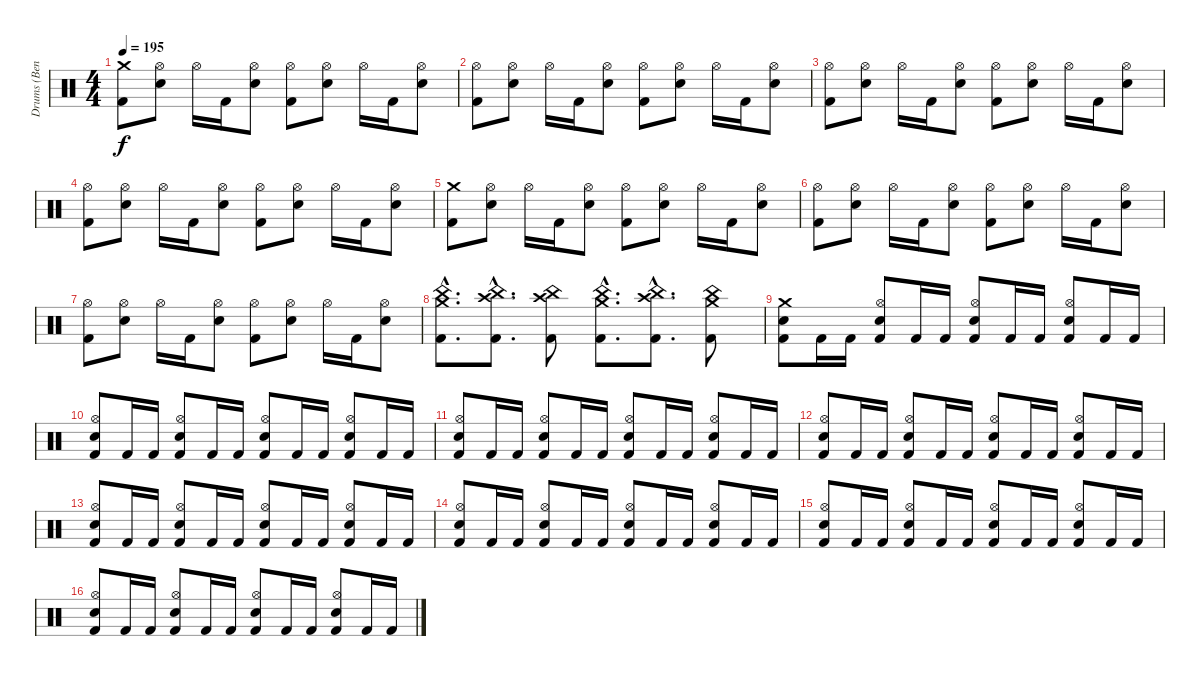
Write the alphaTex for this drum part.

\track ("Drums (Ben)" "Drums (Ben") {instrument percussion}
\staff {score}
\articulation defaults
\ts (4 4)
\tempo 195
\clef neutral
\ks c
("Crash medium (hit)" "Kick (hit) 2").8{dy f} ("Hi-Hat (open)" "Snare (hit) 2").8 "Hi-Hat (open)".16 "Kick (hit) 2".16 ("Hi-Hat (open)" "Snare (hit) 2").8 ("Hi-Hat (open)" "Kick (hit) 2").8 ("Hi-Hat (open)" "Snare (hit) 2").8 "Hi-Hat (open)".16 "Kick (hit) 2".16 ("Hi-Hat (open)" "Snare (hit) 2").8 |
("Hi-Hat (open)" "Kick (hit) 2").8 ("Hi-Hat (open)" "Snare (hit) 2").8 "Hi-Hat (open)".16 "Kick (hit) 2".16 ("Hi-Hat (open)" "Snare (hit) 2").8 ("Hi-Hat (open)" "Kick (hit) 2").8 ("Hi-Hat (open)" "Snare (hit) 2").8 "Hi-Hat (open)".16 "Kick (hit) 2".16 ("Hi-Hat (open)" "Snare (hit) 2").8 |
("Hi-Hat (open)" "Kick (hit) 2").8 ("Hi-Hat (open)" "Snare (hit) 2").8 "Hi-Hat (open)".16 "Kick (hit) 2".16 ("Hi-Hat (open)" "Snare (hit) 2").8 ("Hi-Hat (open)" "Kick (hit) 2").8 ("Hi-Hat (open)" "Snare (hit) 2").8 "Hi-Hat (open)".16 "Kick (hit) 2".16 ("Hi-Hat (open)" "Snare (hit) 2").8 |
("Hi-Hat (open)" "Kick (hit) 2").8 ("Hi-Hat (open)" "Snare (hit) 2").8 "Hi-Hat (open)".16 "Kick (hit) 2".16 ("Hi-Hat (open)" "Snare (hit) 2").8 ("Hi-Hat (open)" "Kick (hit) 2").8 ("Hi-Hat (open)" "Snare (hit) 2").8 "Hi-Hat (open)".16 "Kick (hit) 2".16 ("Hi-Hat (open)" "Snare (hit) 2").8 |
("Crash medium (hit)" "Kick (hit) 2").8 ("Hi-Hat (open)" "Snare (hit) 2").8 "Hi-Hat (open)".16 "Kick (hit) 2".16 ("Hi-Hat (open)" "Snare (hit) 2").8 ("Hi-Hat (open)" "Kick (hit) 2").8 ("Hi-Hat (open)" "Snare (hit) 2").8 "Hi-Hat (open)".16 "Kick (hit) 2".16 ("Hi-Hat (open)" "Snare (hit) 2").8 |
("Hi-Hat (open)" "Kick (hit) 2").8 ("Hi-Hat (open)" "Snare (hit) 2").8 "Hi-Hat (open)".16 "Kick (hit) 2".16 ("Hi-Hat (open)" "Snare (hit) 2").8 ("Hi-Hat (open)" "Kick (hit) 2").8 ("Hi-Hat (open)" "Snare (hit) 2").8 "Hi-Hat (open)".16 "Kick (hit) 2".16 ("Hi-Hat (open)" "Snare (hit) 2").8 |
("Hi-Hat (open)" "Kick (hit) 2").8 ("Hi-Hat (open)" "Snare (hit) 2").8 "Hi-Hat (open)".16 "Kick (hit) 2".16 ("Hi-Hat (open)" "Snare (hit) 2").8 ("Hi-Hat (open)" "Kick (hit) 2").8 ("Hi-Hat (open)" "Snare (hit) 2").8 "Hi-Hat (open)".16 "Kick (hit) 2".16 ("Hi-Hat (open)" "Snare (hit) 2").8 |
("Crash medium (hit)"{hac} "China (hit)"{hac} "Kick (hit) 2"{hac}).8{d} ("Crash high (hit)"{hac} "China (hit)"{hac} "Kick (hit) 2"{hac}).8{d} ("Crash high (hit)" "China (hit)" "Kick (hit) 2").8 ("Crash medium (hit)"{hac} "China (hit)"{hac} "Kick (hit) 2"{hac}).8{d} ("Crash high (hit)"{hac} "China (hit)"{hac} "Kick (hit) 2"{hac}).8{d} ("Crash medium (hit)" "China (hit)" "Kick (hit) 2").8 |
("Crash medium (hit)" "Snare (hit) 2" "Kick (hit) 2").8 "Kick (hit) 2".16 "Kick (hit) 2".16 ("Hi-Hat (open)" "Snare (hit) 2" "Kick (hit) 2").8 "Kick (hit) 2".16 "Kick (hit) 2".16 ("Hi-Hat (open)" "Snare (hit) 2" "Kick (hit) 2").8 "Kick (hit) 2".16 "Kick (hit) 2".16 ("Hi-Hat (open)" "Snare (hit) 2" "Kick (hit) 2").8 "Kick (hit) 2".16 "Kick (hit) 2".16 |
("Hi-Hat (open)" "Snare (hit) 2" "Kick (hit) 2").8 "Kick (hit) 2".16 "Kick (hit) 2".16 ("Hi-Hat (open)" "Snare (hit) 2" "Kick (hit) 2").8 "Kick (hit) 2".16 "Kick (hit) 2".16 ("Hi-Hat (open)" "Snare (hit) 2" "Kick (hit) 2").8 "Kick (hit) 2".16 "Kick (hit) 2".16 ("Hi-Hat (open)" "Snare (hit) 2" "Kick (hit) 2").8 "Kick (hit) 2".16 "Kick (hit) 2".16 |
("Hi-Hat (open)" "Snare (hit) 2" "Kick (hit) 2").8 "Kick (hit) 2".16 "Kick (hit) 2".16 ("Hi-Hat (open)" "Snare (hit) 2" "Kick (hit) 2").8 "Kick (hit) 2".16 "Kick (hit) 2".16 ("Hi-Hat (open)" "Snare (hit) 2" "Kick (hit) 2").8 "Kick (hit) 2".16 "Kick (hit) 2".16 ("Hi-Hat (open)" "Snare (hit) 2" "Kick (hit) 2").8 "Kick (hit) 2".16 "Kick (hit) 2".16 |
("Hi-Hat (open)" "Snare (hit) 2" "Kick (hit) 2").8 "Kick (hit) 2".16 "Kick (hit) 2".16 ("Hi-Hat (open)" "Snare (hit) 2" "Kick (hit) 2").8 "Kick (hit) 2".16 "Kick (hit) 2".16 ("Hi-Hat (open)" "Snare (hit) 2" "Kick (hit) 2").8 "Kick (hit) 2".16 "Kick (hit) 2".16 ("Hi-Hat (open)" "Snare (hit) 2" "Kick (hit) 2").8 "Kick (hit) 2".16 "Kick (hit) 2".16 |
("Hi-Hat (open)" "Snare (hit) 2" "Kick (hit) 2").8 "Kick (hit) 2".16 "Kick (hit) 2".16 ("Hi-Hat (open)" "Snare (hit) 2" "Kick (hit) 2").8 "Kick (hit) 2".16 "Kick (hit) 2".16 ("Hi-Hat (open)" "Snare (hit) 2" "Kick (hit) 2").8 "Kick (hit) 2".16 "Kick (hit) 2".16 ("Hi-Hat (open)" "Snare (hit) 2" "Kick (hit) 2").8 "Kick (hit) 2".16 "Kick (hit) 2".16 |
("Hi-Hat (open)" "Snare (hit) 2" "Kick (hit) 2").8 "Kick (hit) 2".16 "Kick (hit) 2".16 ("Hi-Hat (open)" "Snare (hit) 2" "Kick (hit) 2").8 "Kick (hit) 2".16 "Kick (hit) 2".16 ("Hi-Hat (open)" "Snare (hit) 2" "Kick (hit) 2").8 "Kick (hit) 2".16 "Kick (hit) 2".16 ("Hi-Hat (open)" "Snare (hit) 2" "Kick (hit) 2").8 "Kick (hit) 2".16 "Kick (hit) 2".16 |
("Hi-Hat (open)" "Snare (hit) 2" "Kick (hit) 2").8 "Kick (hit) 2".16 "Kick (hit) 2".16 ("Hi-Hat (open)" "Snare (hit) 2" "Kick (hit) 2").8 "Kick (hit) 2".16 "Kick (hit) 2".16 ("Hi-Hat (open)" "Snare (hit) 2" "Kick (hit) 2").8 "Kick (hit) 2".16 "Kick (hit) 2".16 ("Hi-Hat (open)" "Snare (hit) 2" "Kick (hit) 2").8 "Kick (hit) 2".16 "Kick (hit) 2".16 |
("Hi-Hat (open)" "Snare (hit) 2" "Kick (hit) 2").8 "Kick (hit) 2".16 "Kick (hit) 2".16 ("Hi-Hat (open)" "Snare (hit) 2" "Kick (hit) 2").8 "Kick (hit) 2".16 "Kick (hit) 2".16 ("Hi-Hat (open)" "Snare (hit) 2" "Kick (hit) 2").8 "Kick (hit) 2".16 "Kick (hit) 2".16 ("Hi-Hat (open)" "Snare (hit) 2" "Kick (hit) 2").8 "Kick (hit) 2".16 "Kick (hit) 2".16
